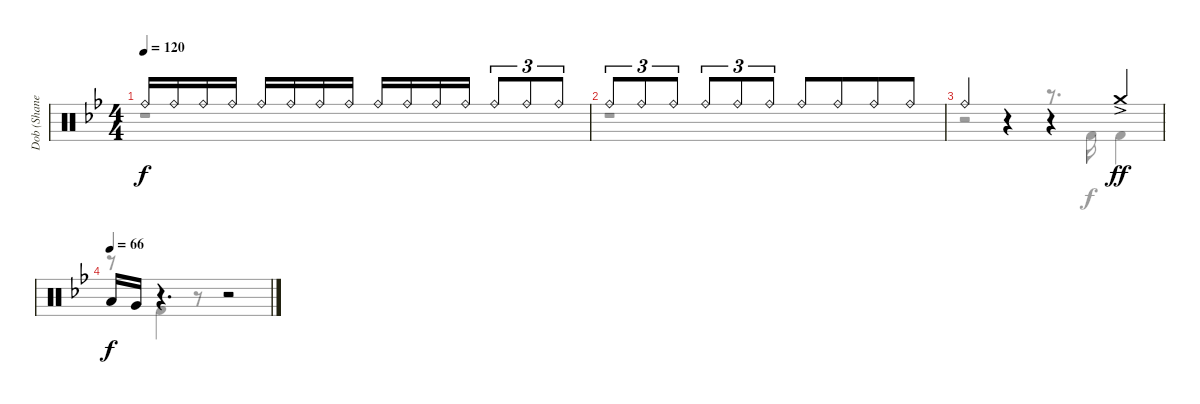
\track ("Dob (Shane Gaalaas)" "Dob (Shane") {instrument percussion}
\staff {score}
\articulation defaults
\voice
\ts (4 4)
\tempo 120
\clef neutral
\ks bb "Ride (bell)".16{dy f} "Ride (bell)".16 "Ride (bell)".16 "Ride (bell)".16 "Ride (bell)".16 "Ride (bell)".16 "Ride (bell)".16 "Ride (bell)".16 "Ride (bell)".16 "Ride (bell)".16 "Ride (bell)".16 "Ride (bell)".16 "Ride (bell)".8{tu (3 2)} "Ride (bell)".8{tu (3 2)} "Ride (bell)".8{tu (3 2)}
|
"Ride (bell)".8{tu (3 2)} "Ride (bell)".8{tu (3 2)} "Ride (bell)".8{tu (3 2)} "Ride (bell)".8{tu (3 2)} "Ride (bell)".8{tu (3 2)} "Ride (bell)".8{tu (3 2)} "Ride (bell)".8 "Ride (bell)".8{beam merge} "Ride (bell)".8 "Ride (bell)".8 |
"Ride (bell)".4 r.4 r.4 "Crash medium (hit)"{ac}.4{dy ff} |
\tempo (66)
"Low Tom (hit)".16{dy f} "Very Low Tom (hit)".16 r.4{d} r.2 |
\voice
\clef neutral
\ottava regular
\simile none
\ks bb
r.1{dy f} |
r.1 |
r.2 r.8{d} "Kick (hit) 2".16 "Kick (hit) 2".4 |
r.8 "Kick (hit) 2".4 r.8 r.2 |
